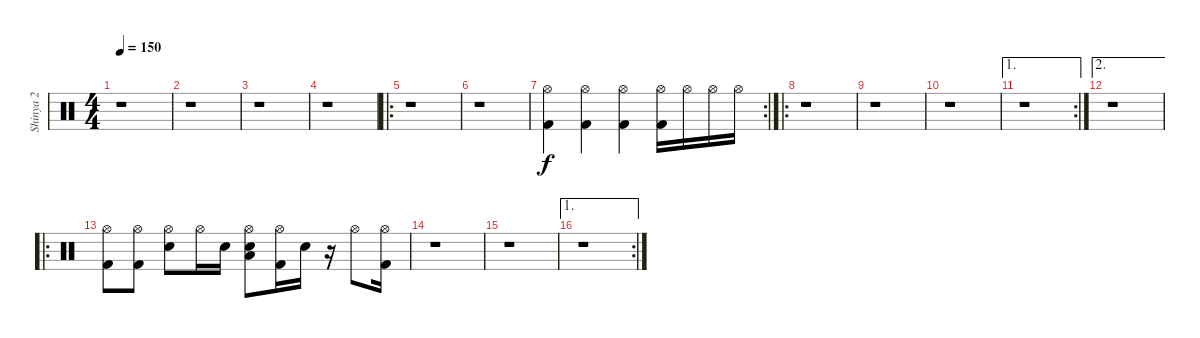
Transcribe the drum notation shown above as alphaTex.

\track ("Shinya 2" "Shinya 2") {instrument percussion}
\staff {score}
\articulation defaults
\ts (4 4)
\tempo 150
\clef neutral
\ks c
r.1{dy f} |
r.1 |
r.1 |
r.1 |
\ro
r.1 |
r.1 |
\rc 2
("Hi-Hat (open)" "Kick (hit) 2").4 ("Hi-Hat (open)" "Kick (hit) 2").4 ("Hi-Hat (open)" "Kick (hit) 2").4 ("Hi-Hat (open)" "Kick (hit) 2").16 "Hi-Hat (open)".16 "Hi-Hat (open)".16 "Hi-Hat (open)".16 |
\ro
r.1 |
r.1 |
r.1 |
\ae 1
\rc 2
r.1 |
\ae 2
r.1 |
\ro
("Hi-Hat (open)" "Kick (hit) 2").8 ("Hi-Hat (open)" "Kick (hit) 2").8 ("Hi-Hat (open)" "Snare (hit) 2").8 "Hi-Hat (open)".16 "Snare (hit) 2".16 ("Hi-Hat (open)" "Snare (hit) 2" "Low Floor Tom (hit)").8 ("Hi-Hat (open)" "Kick (hit) 2").16 "Snare (hit) 2".16 r.16 "Hi-Hat (open)".8 ("Hi-Hat (open)" "Kick (hit) 2").16 |
r.1 |
r.1 |
\ae 1
\rc 2
r.1
